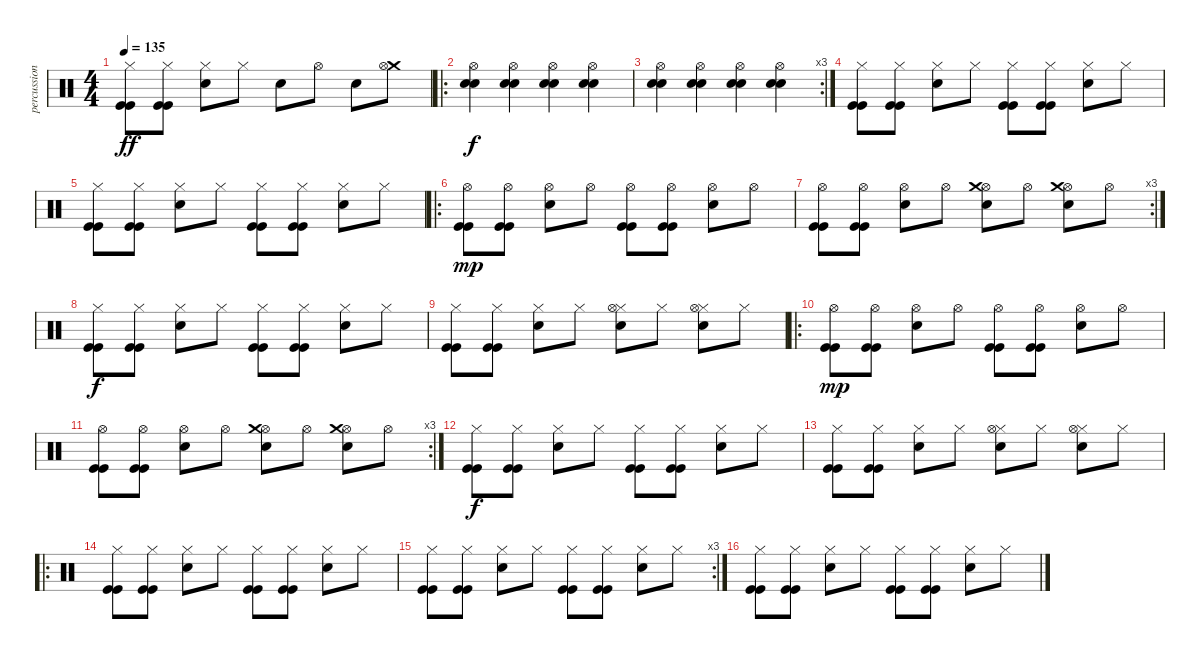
\track ("percussions" "percussion") {instrument percussion}
\staff {score}
\articulation defaults
\ts (4 4)
\tempo 135
\clef neutral
\ks c
("Hi-Hat (closed)" "Kick (hit)" "Kick (hit)").8{dy ff} ("Hi-Hat (closed)" "Kick (hit)" "Kick (hit)").8 ("Hi-Hat (closed)" "Electric Snare (hit)").8 "Hi-Hat (closed)".8 "Electric Snare (hit)".8 "Hi-Hat (open)".8 "Electric Snare (hit)".8 ("Crash medium (hit)" "Hi-Hat (open)").8 |
\ro
("Hi-Hat (open)" "Snare (hit) 2" "Snare (hit) 2").4{dy f} ("Hi-Hat (open)" "Snare (hit) 2" "Snare (hit) 2").4 ("Hi-Hat (open)" "Snare (hit) 2" "Snare (hit) 2").4 ("Hi-Hat (open)" "Snare (hit) 2" "Snare (hit) 2").4 |
\rc 3
("Hi-Hat (open)" "Snare (hit) 2" "Snare (hit) 2").4 ("Hi-Hat (open)" "Snare (hit) 2" "Snare (hit) 2").4 ("Hi-Hat (open)" "Snare (hit) 2" "Snare (hit) 2").4 ("Hi-Hat (open)" "Snare (hit) 2" "Snare (hit) 2").4 |
("Hi-Hat (closed)" "Kick (hit)" "Kick (hit)").8 ("Hi-Hat (closed)" "Kick (hit)" "Kick (hit)").8 ("Hi-Hat (closed)" "Electric Snare (hit)").8 "Hi-Hat (closed)".8 ("Hi-Hat (closed)" "Kick (hit)" "Kick (hit)").8 ("Hi-Hat (closed)" "Kick (hit)" "Kick (hit)").8 ("Hi-Hat (closed)" "Electric Snare (hit)").8 "Hi-Hat (closed)".8 |
("Hi-Hat (closed)" "Kick (hit)" "Kick (hit)").8 ("Hi-Hat (closed)" "Kick (hit)" "Kick (hit)").8 ("Hi-Hat (closed)" "Electric Snare (hit)").8 "Hi-Hat (closed)".8 ("Hi-Hat (closed)" "Kick (hit)" "Kick (hit)").8 ("Hi-Hat (closed)" "Kick (hit)" "Kick (hit)").8 ("Hi-Hat (closed)" "Electric Snare (hit)").8 "Hi-Hat (closed)".8 |
\ro
("Hi-Hat (open)" "Kick (hit)" "Kick (hit)").8{dy mp} ("Hi-Hat (open)" "Kick (hit)" "Kick (hit)").8 ("Hi-Hat (open)" "Electric Snare (hit)").8 "Hi-Hat (open)".8 ("Hi-Hat (open)" "Kick (hit)" "Kick (hit)").8 ("Hi-Hat (open)" "Kick (hit)" "Kick (hit)").8 ("Hi-Hat (open)" "Electric Snare (hit)").8 "Hi-Hat (open)".8 |
\rc 3
("Hi-Hat (open)" "Kick (hit)" "Kick (hit)").8 ("Hi-Hat (open)" "Kick (hit)" "Kick (hit)").8 ("Hi-Hat (open)" "Electric Snare (hit)").8 "Hi-Hat (open)".8 ("Hi-Hat (open)" "Crash medium (hit)" "Electric Snare (hit)").8 "Hi-Hat (open)".8 ("Hi-Hat (open)" "Crash medium (hit)" "Electric Snare (hit)").8 "Hi-Hat (open)".8 |
("Hi-Hat (closed)" "Kick (hit)" "Kick (hit)").8{dy f} ("Hi-Hat (closed)" "Kick (hit)" "Kick (hit)").8 ("Hi-Hat (closed)" "Electric Snare (hit)").8 "Hi-Hat (closed)".8 ("Hi-Hat (closed)" "Kick (hit)" "Kick (hit)").8 ("Hi-Hat (closed)" "Kick (hit)" "Kick (hit)").8 ("Hi-Hat (closed)" "Electric Snare (hit)").8 "Hi-Hat (closed)".8 |
("Hi-Hat (closed)" "Kick (hit)" "Kick (hit)").8 ("Hi-Hat (closed)" "Kick (hit)" "Kick (hit)").8 ("Hi-Hat (closed)" "Electric Snare (hit)").8 "Hi-Hat (closed)".8 ("Hi-Hat (closed)" "Hi-Hat (open)" "Electric Snare (hit)").8 "Hi-Hat (closed)".8 ("Hi-Hat (closed)" "Hi-Hat (open)" "Electric Snare (hit)").8 "Hi-Hat (closed)".8 |
\ro
("Hi-Hat (open)" "Kick (hit)" "Kick (hit)").8{dy mp} ("Hi-Hat (open)" "Kick (hit)" "Kick (hit)").8 ("Hi-Hat (open)" "Electric Snare (hit)").8 "Hi-Hat (open)".8 ("Hi-Hat (open)" "Kick (hit)" "Kick (hit)").8 ("Hi-Hat (open)" "Kick (hit)" "Kick (hit)").8 ("Hi-Hat (open)" "Electric Snare (hit)").8 "Hi-Hat (open)".8 |
\rc 3
("Hi-Hat (open)" "Kick (hit)" "Kick (hit)").8 ("Hi-Hat (open)" "Kick (hit)" "Kick (hit)").8 ("Hi-Hat (open)" "Electric Snare (hit)").8 "Hi-Hat (open)".8 ("Hi-Hat (open)" "Crash medium (hit)" "Electric Snare (hit)").8 "Hi-Hat (open)".8 ("Hi-Hat (open)" "Crash medium (hit)" "Electric Snare (hit)").8 "Hi-Hat (open)".8 |
("Hi-Hat (closed)" "Kick (hit)" "Kick (hit)").8{dy f} ("Hi-Hat (closed)" "Kick (hit)" "Kick (hit)").8 ("Hi-Hat (closed)" "Electric Snare (hit)").8 "Hi-Hat (closed)".8 ("Hi-Hat (closed)" "Kick (hit)" "Kick (hit)").8 ("Hi-Hat (closed)" "Kick (hit)" "Kick (hit)").8 ("Hi-Hat (closed)" "Electric Snare (hit)").8 "Hi-Hat (closed)".8 |
("Hi-Hat (closed)" "Kick (hit)" "Kick (hit)").8 ("Hi-Hat (closed)" "Kick (hit)" "Kick (hit)").8 ("Hi-Hat (closed)" "Electric Snare (hit)").8 "Hi-Hat (closed)".8 ("Hi-Hat (closed)" "Hi-Hat (open)" "Electric Snare (hit)").8 "Hi-Hat (closed)".8 ("Hi-Hat (closed)" "Hi-Hat (open)" "Electric Snare (hit)").8 "Hi-Hat (closed)".8 |
\ro
("Hi-Hat (closed)" "Kick (hit)" "Kick (hit)").8 ("Hi-Hat (closed)" "Kick (hit)" "Kick (hit)").8 ("Hi-Hat (closed)" "Electric Snare (hit)").8 "Hi-Hat (closed)".8 ("Hi-Hat (closed)" "Kick (hit)" "Kick (hit)").8 ("Hi-Hat (closed)" "Kick (hit)" "Kick (hit)").8 ("Hi-Hat (closed)" "Electric Snare (hit)").8 "Hi-Hat (closed)".8 |
\rc 3
("Hi-Hat (closed)" "Kick (hit)" "Kick (hit)").8 ("Hi-Hat (closed)" "Kick (hit)" "Kick (hit)").8 ("Hi-Hat (closed)" "Electric Snare (hit)").8 "Hi-Hat (closed)".8 ("Hi-Hat (closed)" "Kick (hit)" "Kick (hit)").8 ("Hi-Hat (closed)" "Kick (hit)" "Kick (hit)").8 ("Hi-Hat (closed)" "Electric Snare (hit)").8 "Hi-Hat (closed)".8 |
("Hi-Hat (closed)" "Kick (hit)" "Kick (hit)").8 ("Hi-Hat (closed)" "Kick (hit)" "Kick (hit)").8 ("Hi-Hat (closed)" "Electric Snare (hit)").8 "Hi-Hat (closed)".8 ("Hi-Hat (closed)" "Kick (hit)" "Kick (hit)").8 ("Hi-Hat (closed)" "Kick (hit)" "Kick (hit)").8 ("Hi-Hat (closed)" "Electric Snare (hit)").8 "Hi-Hat (closed)".8
